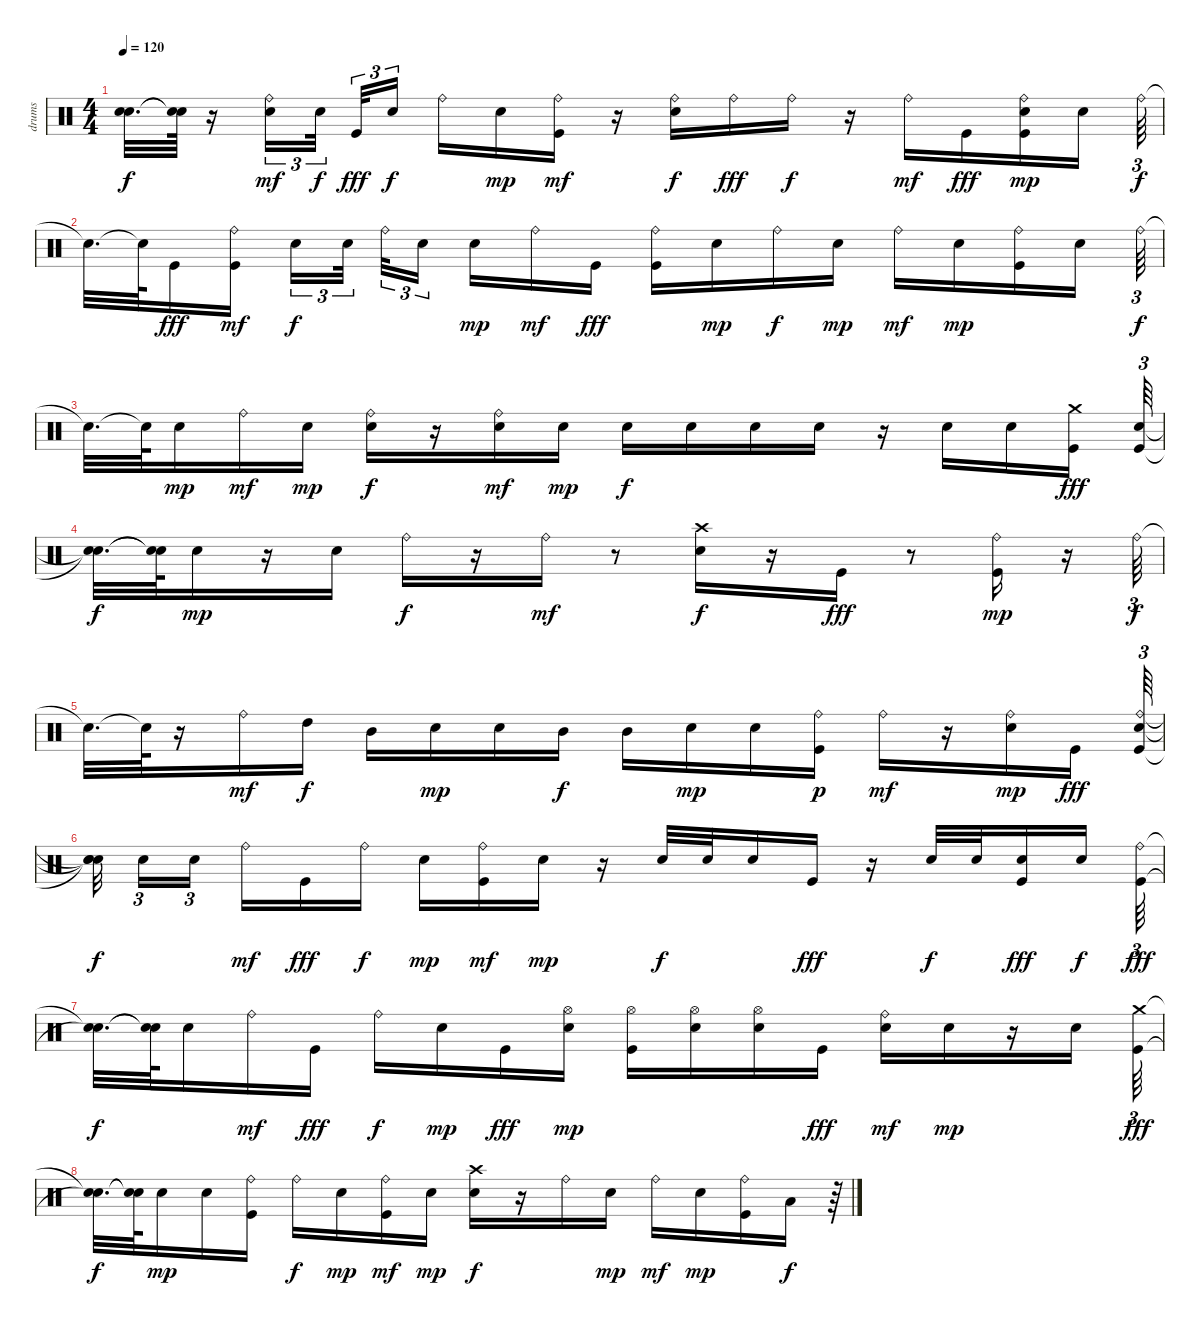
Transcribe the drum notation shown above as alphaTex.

\track ("drums" "drums") {instrument percussion}
\staff {score}
\articulation defaults
\ts (4 4)
\tempo 120
\clef neutral
\ks c
("Snare (hit)"{t} "Snare (hit)"{t}).32{d dy f} ("Snare (hit)"{t} "Snare (hit)"{t}).64 r.16 ("Snare (hit) 2" "Ride (bell)").16{tu (3 2) dy mf} "Snare (hit) 2".32{tu (3 2) dy f beam splitsecondary} "Kick (hit)".32{tu (3 2) dy fff} "Snare (hit) 2".16{tu (3 2) dy f} "Ride (bell)".16 "Snare (hit) 2".16{dy mp} ("Kick (hit)" "Ride (bell)").16{dy mf} r.16 ("Snare (hit) 2" "Ride (bell)").16{dy f} "Ride (bell)".16{dy fff} "Ride (bell)".16{dy f} r.16 "Ride (bell)".16{dy mf} "Kick (hit)".16{dy fff} ("Snare (hit) 2" "Kick (hit)" "Ride (bell)").16{dy mp} "Snare (hit) 2".16 "Ride (bell)".64{tu (3 2) dy f} |
"Snare (hit)"{t}.32{d} "Snare (hit)"{t}.64 "Kick (hit)".16{dy fff} ("Kick (hit)" "Ride (bell)").16{dy mf beam splitsecondary} "Snare (hit) 2".16{tu (3 2) dy f} "Snare (hit) 2".32{tu (3 2)} "Ride (bell)".32{tu (3 2)} "Snare (hit) 2".16{tu (3 2) beam splitsecondary} "Snare (hit) 2".16{dy mp} "Ride (bell)".16{dy mf} "Kick (hit)".16{dy fff} ("Kick (hit)" "Ride (bell)").16 "Snare (hit) 2".16{dy mp} "Ride (bell)".16{dy f} "Snare (hit) 2".16{dy mp} "Ride (bell)".16{dy mf} "Snare (hit) 2".16{dy mp} ("Kick (hit)" "Ride (bell)").16 "Snare (hit) 2".16 "Ride (bell)".64{tu (3 2) dy f} |
"Snare (hit)"{t}.32{d} "Snare (hit)"{t}.64 "Snare (hit) 2".16{dy mp} "Ride (bell)".16{dy mf} "Snare (hit) 2".16{dy mp} ("Snare (hit) 2" "Ride (bell)").16{dy f} r.16 ("Snare (hit) 2" "Ride (bell)").16{dy mf} "Snare (hit) 2".16{dy mp} "Snare (hit) 2".16{dy f} "Snare (hit) 2".16 "Snare (hit) 2".16 "Snare (hit) 2".16 r.16 "Snare (hit) 2".16 "Snare (hit) 2".16 ("Kick (hit)" "Crash medium (hit)").16{dy fff} ("Snare (hit) 2" "Kick (hit)").64{tu (3 2)} |
("Snare (hit)"{t} "Snare (hit)"{t}).32{d dy f} ("Snare (hit)"{t} "Snare (hit)"{t}).64 "Snare (hit) 2".16{dy mp} r.16 "Snare (hit) 2".16 "Ride (bell)".16{dy f} r.16 "Ride (bell)".16{dy mf} r.8 ("Snare (hit) 2" "Crash high (hit)").16{dy f} r.16 "Kick (hit)".16{dy fff} r.8 ("Kick (hit)" "Ride (bell)").16{dy mp} r.16 "Ride (bell)".64{tu (3 2) dy f} |
"Snare (hit)"{t}.32{d} "Snare (hit)"{t}.64 r.16 "Ride (bell)".16{dy mf} "High Tom (hit)".16{dy f} "Mid Tom (hit)".16 "Snare (hit) 2".16{dy mp} "Snare (hit) 2".16 "Mid Tom (hit)".16{dy f} "Mid Tom (hit)".16 "Snare (hit) 2".16{dy mp} "Snare (hit) 2".16 ("Kick (hit)" "Ride (bell)").16{dy p} "Ride (bell)".16{dy mf} r.16 ("Snare (hit) 2" "Ride (bell)").16{dy mp} "Kick (hit)".16{dy fff} ("Snare (hit) 2" "Kick (hit)" "Ride (bell)").64{tu (3 2)} |
("Snare (hit)"{t} "Snare (hit)"{t} "Snare (hit)"{t}).32{dy f beam splitsecondary} "Snare (hit) 2".16{tu (3 2)} "Snare (hit) 2".16{tu (3 2) beam splitsecondary} "Ride (bell)".16{dy mf} "Kick (hit)".16{dy fff} "Ride (bell)".16{dy f} "Snare (hit) 2".16{dy mp} ("Kick (hit)" "Ride (bell)").16{dy mf} "Snare (hit) 2".16{dy mp} r.16 "Snare (hit) 2".32{dy f} "Snare (hit) 2".32 "Snare (hit) 2".16 "Kick (hit)".16{dy fff} r.16 "Snare (hit) 2".32{dy f} "Snare (hit) 2".32 ("Kick (hit)" "Snare (hit) 2").16{dy fff} "Snare (hit) 2".16{dy f beam splitsecondary} ("Kick (hit)" "Ride (bell)").64{tu (3 2) dy fff} |
("Snare (hit)"{t} "Snare (hit)"{t}).32{d dy f} ("Snare (hit)"{t} "Snare (hit)"{t}).64 "Snare (hit) 2".16 "Ride (bell)".16{dy mf} "Kick (hit)".16{dy fff} "Ride (bell)".16{dy f} "Snare (hit) 2".16{dy mp} "Kick (hit)".16{dy fff} ("Snare (hit) 2" "Hi-Hat (open)").16{dy mp} ("Kick (hit)" "Hi-Hat (open)").16 ("Snare (hit) 2" "Hi-Hat (open)").16 ("Snare (hit) 2" "Hi-Hat (open)").16 "Kick (hit)".16{dy fff} ("Snare (hit) 2" "Ride (bell)").16{dy mf} "Snare (hit) 2".16{dy mp} r.16 "Snare (hit) 2".16 ("Kick (hit)" "Crash medium (hit)").64{tu (3 2) dy fff} |
("Snare (hit)"{t} "Snare (hit)"{t}).32{d dy f} ("Snare (hit)"{t} "Snare (hit)"{t}).64 "Snare (hit) 2".16{dy mp} "Snare (hit) 2".16 ("Kick (hit)" "Ride (bell)").16 "Ride (bell)".16{dy f} "Snare (hit) 2".16{dy mp} ("Kick (hit)" "Ride (bell)").16{dy mf} "Snare (hit) 2".16{dy mp} ("Snare (hit) 2" "Crash high (hit)").16{dy f} r.16 "Ride (bell)".16 "Snare (hit) 2".16{dy mp} "Ride (bell)".16{dy mf} "Snare (hit) 2".16{dy mp} ("Kick (hit)" "Ride (bell)").16 "Low Tom (hit)".16{dy f} r.64{tu (3 2)}
